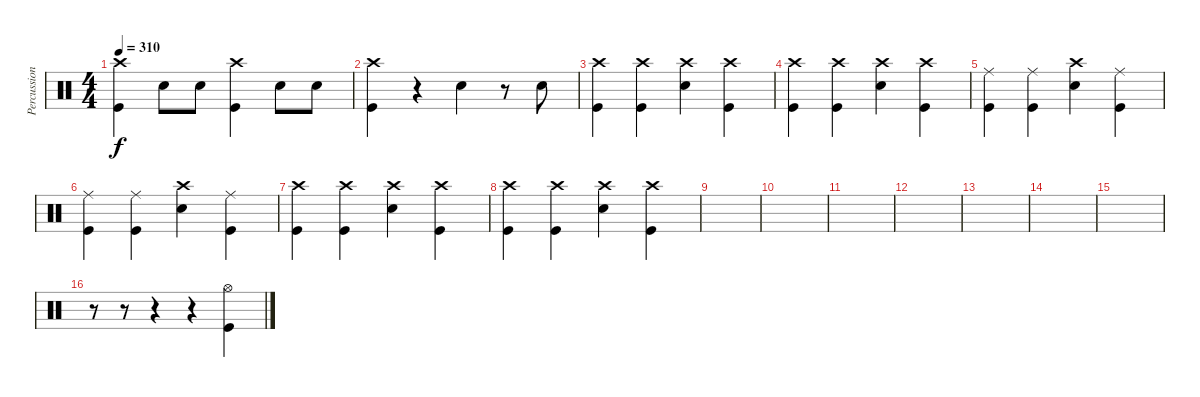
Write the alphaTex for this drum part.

\track ("Percussion" "Percussion") {instrument percussion}
\staff {score}
\articulation defaults
\ts (4 4)
\tempo 310
\clef neutral
\ks c
("Crash high (hit)" "Kick (hit)").4{dy f} "Electric Snare (hit)".8 "Electric Snare (hit)".8 ("Crash high (hit)" "Kick (hit)").4 "Electric Snare (hit)".8 "Electric Snare (hit)".8 |
("Crash high (hit)" "Kick (hit)").4 r.4 "Electric Snare (hit)".4 r.8 "Electric Snare (hit)".8 |
("Crash high (hit)" "Kick (hit)").4 ("Crash high (hit)" "Kick (hit)").4 ("Crash high (hit)" "Electric Snare (hit)").4 ("Crash high (hit)" "Kick (hit)").4 |
("Crash high (hit)" "Kick (hit)").4 ("Crash high (hit)" "Kick (hit)").4 ("Crash high (hit)" "Electric Snare (hit)").4 ("Crash high (hit)" "Kick (hit)").4 |
("Ride (middle)" "Kick (hit)").4 ("Ride (middle)" "Kick (hit)").4 ("Crash high (hit)" "Electric Snare (hit)").4 ("Ride (middle)" "Kick (hit)").4 |
("Ride (middle)" "Kick (hit)").4 ("Ride (middle)" "Kick (hit)").4 ("Crash high (hit)" "Electric Snare (hit)").4 ("Ride (middle)" "Kick (hit)").4 |
("Crash high (hit)" "Kick (hit)").4 ("Crash high (hit)" "Kick (hit)").4 ("Crash high (hit)" "Electric Snare (hit)").4 ("Crash high (hit)" "Kick (hit)").4 |
("Crash high (hit)" "Kick (hit)").4 ("Crash high (hit)" "Kick (hit)").4 ("Crash high (hit)" "Electric Snare (hit)").4 ("Crash high (hit)" "Kick (hit)").4 |
|
|
|
|
|
|
|
r.8 r.8 r.4 r.4 ("Hi-Hat (open)" "Kick (hit)").4
